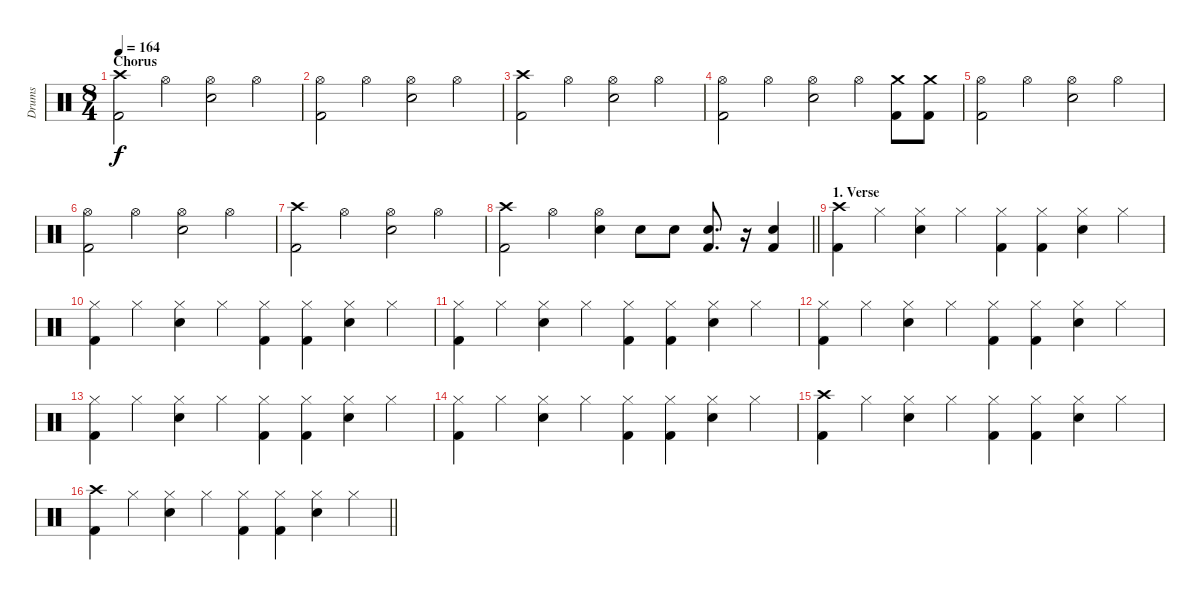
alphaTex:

\track ("Drums" "Drums") {instrument percussion}
\staff {score}
\articulation defaults
\ts (8 4)
\section ("" "Chorus")
\tempo 164
\clef neutral
\ks c
("Crash high (hit)" "Kick (hit) 2").2{dy f} "Hi-Hat (open)".2 ("Hi-Hat (open)" "Snare (hit) 2").2 "Hi-Hat (open)".2 |
("Hi-Hat (open)" "Kick (hit) 2").2 "Hi-Hat (open)".2 ("Hi-Hat (open)" "Snare (hit) 2").2 "Hi-Hat (open)".2 |
("Crash high (hit)" "Kick (hit) 2").2 "Hi-Hat (open)".2 ("Hi-Hat (open)" "Snare (hit) 2").2 "Hi-Hat (open)".2 |
("Hi-Hat (open)" "Kick (hit) 2").2 "Hi-Hat (open)".2 ("Hi-Hat (open)" "Snare (hit) 2").2 "Hi-Hat (open)".4 ("Crash medium (hit)" "Kick (hit) 2").8 ("Crash medium (hit)" "Kick (hit) 2").8 |
("Hi-Hat (open)" "Kick (hit) 2").2 "Hi-Hat (open)".2 ("Hi-Hat (open)" "Snare (hit) 2").2 "Hi-Hat (open)".2 |
("Hi-Hat (open)" "Kick (hit) 2").2 "Hi-Hat (open)".2 ("Hi-Hat (open)" "Snare (hit) 2").2 "Hi-Hat (open)".2 |
("Crash high (hit)" "Kick (hit) 2").2 "Hi-Hat (open)".2 ("Hi-Hat (open)" "Snare (hit) 2").2 "Hi-Hat (open)".2 |
\barLineRight lightlight
("Crash high (hit)" "Kick (hit) 2").2 "Hi-Hat (open)".2 ("Hi-Hat (open)" "Snare (hit) 2").4 "Snare (hit) 2".8 "Snare (hit) 2".8 ("Snare (hit) 2" "Kick (hit) 2").8{d} r.16 ("Snare (hit) 2" "Kick (hit) 2").4 |
\section ("" "1. Verse")
("Crash high (hit)" "Kick (hit) 2").4 "Hi-Hat (closed)".4 ("Hi-Hat (closed)" "Snare (hit) 2").4 "Hi-Hat (closed)".4 ("Hi-Hat (closed)" "Kick (hit) 2").4 ("Hi-Hat (closed)" "Kick (hit) 2").4 ("Hi-Hat (closed)" "Snare (hit) 2").4 "Hi-Hat (closed)".4 |
("Hi-Hat (closed)" "Kick (hit) 2").4 "Hi-Hat (closed)".4 ("Hi-Hat (closed)" "Snare (hit) 2").4 "Hi-Hat (closed)".4 ("Hi-Hat (closed)" "Kick (hit) 2").4 ("Hi-Hat (closed)" "Kick (hit) 2").4 ("Hi-Hat (closed)" "Snare (hit) 2").4 "Hi-Hat (closed)".4 |
("Hi-Hat (closed)" "Kick (hit) 2").4 "Hi-Hat (closed)".4 ("Hi-Hat (closed)" "Snare (hit) 2").4 "Hi-Hat (closed)".4 ("Hi-Hat (closed)" "Kick (hit) 2").4 ("Hi-Hat (closed)" "Kick (hit) 2").4 ("Hi-Hat (closed)" "Snare (hit) 2").4 "Hi-Hat (closed)".4 |
("Hi-Hat (closed)" "Kick (hit) 2").4 "Hi-Hat (closed)".4 ("Hi-Hat (closed)" "Snare (hit) 2").4 "Hi-Hat (closed)".4 ("Hi-Hat (closed)" "Kick (hit) 2").4 ("Hi-Hat (closed)" "Kick (hit) 2").4 ("Hi-Hat (closed)" "Snare (hit) 2").4 "Hi-Hat (closed)".4 |
("Hi-Hat (closed)" "Kick (hit) 2").4 "Hi-Hat (closed)".4 ("Hi-Hat (closed)" "Snare (hit) 2").4 "Hi-Hat (closed)".4 ("Hi-Hat (closed)" "Kick (hit) 2").4 ("Hi-Hat (closed)" "Kick (hit) 2").4 ("Hi-Hat (closed)" "Snare (hit) 2").4 "Hi-Hat (closed)".4 |
("Hi-Hat (closed)" "Kick (hit) 2").4 "Hi-Hat (closed)".4 ("Hi-Hat (closed)" "Snare (hit) 2").4 "Hi-Hat (closed)".4 ("Hi-Hat (closed)" "Kick (hit) 2").4 ("Hi-Hat (closed)" "Kick (hit) 2").4 ("Hi-Hat (closed)" "Snare (hit) 2").4 "Hi-Hat (closed)".4 |
("Crash high (hit)" "Kick (hit) 2").4 "Hi-Hat (closed)".4 ("Hi-Hat (closed)" "Snare (hit) 2").4 "Hi-Hat (closed)".4 ("Hi-Hat (closed)" "Kick (hit) 2").4 ("Hi-Hat (closed)" "Kick (hit) 2").4 ("Hi-Hat (closed)" "Snare (hit) 2").4 "Hi-Hat (closed)".4 |
\barLineRight lightlight
("Crash high (hit)" "Kick (hit) 2").4 "Hi-Hat (closed)".4 ("Hi-Hat (closed)" "Snare (hit) 2").4 "Hi-Hat (closed)".4 ("Hi-Hat (closed)" "Kick (hit) 2").4 ("Hi-Hat (closed)" "Kick (hit) 2").4 ("Hi-Hat (closed)" "Snare (hit) 2").4 "Hi-Hat (closed)".4
